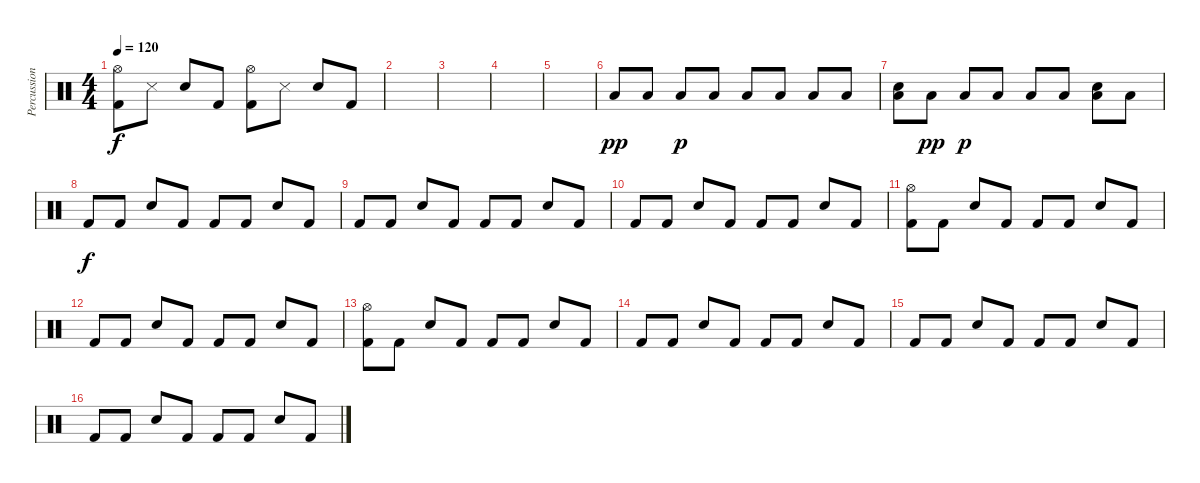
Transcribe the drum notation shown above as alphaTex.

\track ("Percussion" "Percussion") {instrument percussion}
\staff {score}
\articulation defaults
\ts (4 4)
\tempo 120
\clef neutral
\ks c
("Hi-Hat (open)" "Kick (hit) 2").8{dy f} "Snare (side stick) 3".8 "Electric Snare (hit)".8 "Kick (hit) 2".8 ("Hi-Hat (open)" "Kick (hit) 2").8 "Snare (side stick) 3".8 "Electric Snare (hit)".8 "Kick (hit) 2".8 |
|
|
|
|
"Low Floor Tom (hit)".8{dy pp} "Low Floor Tom (hit)".8 "Low Floor Tom (hit)".8{dy p} "Low Floor Tom (hit)".8 "Low Floor Tom (hit)".8 "Low Floor Tom (hit)".8 "Low Floor Tom (hit)".8 "Low Floor Tom (hit)".8 |
("Low Floor Tom (hit)" "Snare (hit) 2").8 "Low Floor Tom (hit)".8{dy pp} "Low Floor Tom (hit)".8{dy p} "Low Floor Tom (hit)".8 "Low Floor Tom (hit)".8 "Low Floor Tom (hit)".8 ("Low Floor Tom (hit)" "Snare (hit) 2").8 "Low Floor Tom (hit)".8 |
"Kick (hit) 2".8{dy f} "Kick (hit) 2".8 "Electric Snare (hit)".8 "Kick (hit) 2".8 "Kick (hit) 2".8 "Kick (hit) 2".8 "Electric Snare (hit)".8 "Kick (hit) 2".8 |
"Kick (hit) 2".8 "Kick (hit) 2".8 "Electric Snare (hit)".8 "Kick (hit) 2".8 "Kick (hit) 2".8 "Kick (hit) 2".8 "Electric Snare (hit)".8 "Kick (hit) 2".8 |
"Kick (hit) 2".8 "Kick (hit) 2".8 "Electric Snare (hit)".8 "Kick (hit) 2".8 "Kick (hit) 2".8 "Kick (hit) 2".8 "Electric Snare (hit)".8 "Kick (hit) 2".8 |
("Kick (hit) 2" "Hi-Hat (open)").8 "Kick (hit) 2".8 "Electric Snare (hit)".8 "Kick (hit) 2".8 "Kick (hit) 2".8 "Kick (hit) 2".8 "Electric Snare (hit)".8 "Kick (hit) 2".8 |
"Kick (hit) 2".8 "Kick (hit) 2".8 "Electric Snare (hit)".8 "Kick (hit) 2".8 "Kick (hit) 2".8 "Kick (hit) 2".8 "Electric Snare (hit)".8 "Kick (hit) 2".8 |
("Kick (hit) 2" "Hi-Hat (open)").8 "Kick (hit) 2".8 "Electric Snare (hit)".8 "Kick (hit) 2".8 "Kick (hit) 2".8 "Kick (hit) 2".8 "Electric Snare (hit)".8 "Kick (hit) 2".8 |
"Kick (hit) 2".8 "Kick (hit) 2".8 "Electric Snare (hit)".8 "Kick (hit) 2".8 "Kick (hit) 2".8 "Kick (hit) 2".8 "Electric Snare (hit)".8 "Kick (hit) 2".8 |
"Kick (hit) 2".8 "Kick (hit) 2".8 "Electric Snare (hit)".8 "Kick (hit) 2".8 "Kick (hit) 2".8 "Kick (hit) 2".8 "Electric Snare (hit)".8 "Kick (hit) 2".8 |
"Kick (hit) 2".8 "Kick (hit) 2".8 "Electric Snare (hit)".8 "Kick (hit) 2".8 "Kick (hit) 2".8 "Kick (hit) 2".8 "Electric Snare (hit)".8 "Kick (hit) 2".8
